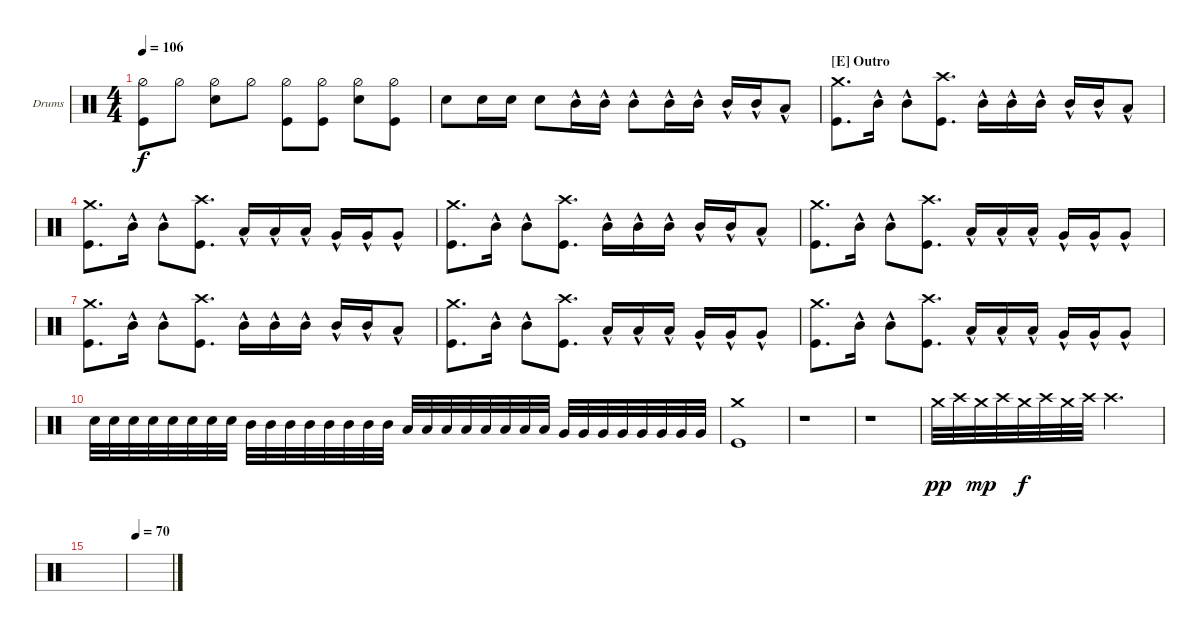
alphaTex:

\bracketExtendMode nobrackets
\firstSystemTrackNameOrientation horizontal
\otherSystemsTrackNameOrientation horizontal
\defaultBarNumberDisplay FirstOfSystem
\track ("Herman Rarebell" "Drums") {instrument percussion}
\staff {score}
\articulation defaults
\ts (4 4)
\tempo 106
\clef neutral
\ks c
("Kick (hit)" "Hi-Hat (half)").8{dy f} "Hi-Hat (half)".8 ("Snare (hit) 2" "Hi-Hat (half)").8 "Hi-Hat (half)".8 ("Kick (hit)" "Hi-Hat (half)").8 ("Hi-Hat (half)" "Kick (hit)").8 ("Snare (hit) 2" "Hi-Hat (half)").8 ("Hi-Hat (half)" "Kick (hit)").8 |
"Snare (hit) 2".8 "Snare (hit) 2".16 "Snare (hit) 2".16 "Snare (hit) 2".8 "Mid Tom (hit)"{hac}.16 "Mid Tom (hit)"{hac}.16 "Mid Tom (hit)"{hac}.8 "Mid Tom (hit)"{hac}.16 "Mid Tom (hit)"{hac}.16 "Mid Tom (hit)"{hac}.16 "Mid Tom (hit)"{hac}.16 "Low Tom (hit)"{hac}.8 |
\section ("E" "Outro")
("Kick (hit)" "Crash medium (hit)").8{d} "Mid Tom (hit)"{hac}.16 "Mid Tom (hit)"{hac}.8 ("Kick (hit)" "Crash high (hit)").8{d} "Mid Tom (hit)"{hac}.16 "Mid Tom (hit)"{hac}.16 "Mid Tom (hit)"{hac}.16 "Mid Tom (hit)"{hac}.16 "Mid Tom (hit)"{hac}.16 "Low Tom (hit)"{hac}.8 |
("Kick (hit)" "Crash medium (hit)").8{d} "Mid Tom (hit)"{hac}.16 "Mid Tom (hit)"{hac}.8 ("Kick (hit)" "Crash high (hit)").8{d} "Low Tom (hit)"{hac}.16 "Low Tom (hit)"{hac}.16 "Low Tom (hit)"{hac}.16 "Very Low Tom (hit)"{hac}.16 "Very Low Tom (hit)"{hac}.16 "Very Low Tom (hit)"{hac}.8 |
("Kick (hit)" "Crash medium (hit)").8{d} "Mid Tom (hit)"{hac}.16 "Mid Tom (hit)"{hac}.8 ("Kick (hit)" "Crash high (hit)").8{d} "Mid Tom (hit)"{hac}.16 "Mid Tom (hit)"{hac}.16 "Mid Tom (hit)"{hac}.16 "Mid Tom (hit)"{hac}.16 "Mid Tom (hit)"{hac}.16 "Low Tom (hit)"{hac}.8 |
("Kick (hit)" "Crash medium (hit)").8{d} "Mid Tom (hit)"{hac}.16 "Mid Tom (hit)"{hac}.8 ("Kick (hit)" "Crash high (hit)").8{d} "Low Tom (hit)"{hac}.16 "Low Tom (hit)"{hac}.16 "Low Tom (hit)"{hac}.16 "Very Low Tom (hit)"{hac}.16 "Very Low Tom (hit)"{hac}.16 "Very Low Tom (hit)"{hac}.8 |
("Kick (hit)" "Crash medium (hit)").8{d} "Mid Tom (hit)"{hac}.16 "Mid Tom (hit)"{hac}.8 ("Kick (hit)" "Crash high (hit)").8{d} "Mid Tom (hit)"{hac}.16 "Mid Tom (hit)"{hac}.16 "Mid Tom (hit)"{hac}.16 "Mid Tom (hit)"{hac}.16 "Mid Tom (hit)"{hac}.16 "Low Tom (hit)"{hac}.8 |
("Kick (hit)" "Crash medium (hit)").8{d} "Mid Tom (hit)"{hac}.16 "Mid Tom (hit)"{hac}.8 ("Kick (hit)" "Crash high (hit)").8{d} "Low Tom (hit)"{hac}.16 "Low Tom (hit)"{hac}.16 "Low Tom (hit)"{hac}.16 "Very Low Tom (hit)"{hac}.16 "Very Low Tom (hit)"{hac}.16 "Very Low Tom (hit)"{hac}.8 |
("Kick (hit)" "Crash medium (hit)").8{d} "Mid Tom (hit)"{hac}.16 "Mid Tom (hit)"{hac}.8 ("Kick (hit)" "Crash high (hit)").8{d} "Low Tom (hit)"{hac}.16 "Low Tom (hit)"{hac}.16 "Low Tom (hit)"{hac}.16 "Very Low Tom (hit)"{hac}.16 "Very Low Tom (hit)"{hac}.16 "Very Low Tom (hit)"{hac}.8 |
"Snare (hit) 2".32 "Snare (hit) 2".32 "Snare (hit) 2".32 "Snare (hit) 2".32 "Snare (hit) 2".32 "Snare (hit) 2".32 "Snare (hit) 2".32 "Snare (hit) 2".32 "Mid Tom (hit)".32 "Mid Tom (hit)".32 "Mid Tom (hit)".32 "Mid Tom (hit)".32 "Mid Tom (hit)".32 "Mid Tom (hit)".32 "Mid Tom (hit)".32 "Mid Tom (hit)".32 "Low Tom (hit)".32 "Low Tom (hit)".32 "Low Tom (hit)".32 "Low Tom (hit)".32 "Low Tom (hit)".32 "Low Tom (hit)".32 "Low Tom (hit)".32 "Low Tom (hit)".32 "Very Low Tom (hit)".32 "Very Low Tom (hit)".32 "Very Low Tom (hit)".32 "Very Low Tom (hit)".32 "Very Low Tom (hit)".32 "Very Low Tom (hit)".32 "Very Low Tom (hit)".32 "Very Low Tom (hit)".32 |
("Crash medium (hit)" "Kick (hit)").1 |
r.1 |
r.1 |
"Crash medium (hit)".32{dy pp} "Crash high (hit)".32 "Crash medium (hit)".32{dy mp} "Crash high (hit)".32 "Crash medium (hit)".32{dy f} "Crash high (hit)".32 "Crash medium (hit)".32 "Crash high (hit)".32 "Crash high (hit)".2{d} |
|
\tempo 70
